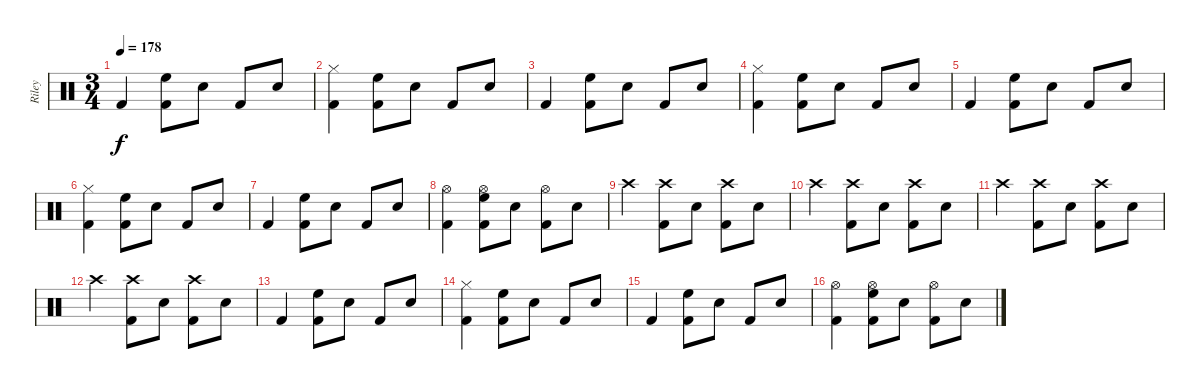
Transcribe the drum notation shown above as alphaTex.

\track ("Riley" "Riley") {instrument percussion}
\staff {score}
\articulation defaults
\ts (3 4)
\tempo 178
\clef neutral
\ks c "Kick (hit) 2".4{dy f}
("High Floor Tom (hit)" "Kick (hit) 2").8 "Snare (hit) 2".8 "Kick (hit) 2".8 "Snare (hit) 2".8 |
("Hi-Hat (closed)" "Kick (hit) 2").4 ("High Floor Tom (hit)" "Kick (hit) 2").8 "Snare (hit) 2".8 "Kick (hit) 2".8 "Snare (hit) 2".8 |
"Kick (hit) 2".4 ("High Floor Tom (hit)" "Kick (hit) 2").8 "Snare (hit) 2".8 "Kick (hit) 2".8 "Snare (hit) 2".8 |
("Hi-Hat (closed)" "Kick (hit) 2").4 ("High Floor Tom (hit)" "Kick (hit) 2").8 "Snare (hit) 2".8 "Kick (hit) 2".8 "Snare (hit) 2".8 |
"Kick (hit) 2".4 ("High Floor Tom (hit)" "Kick (hit) 2").8 "Snare (hit) 2".8 "Kick (hit) 2".8 "Snare (hit) 2".8 |
("Hi-Hat (closed)" "Kick (hit) 2").4 ("High Floor Tom (hit)" "Kick (hit) 2").8 "Snare (hit) 2".8 "Kick (hit) 2".8 "Snare (hit) 2".8 |
"Kick (hit) 2".4 ("High Floor Tom (hit)" "Kick (hit) 2").8 "Snare (hit) 2".8 "Kick (hit) 2".8 "Snare (hit) 2".8 |
("Hi-Hat (open)" "Kick (hit) 2").4 ("Hi-Hat (open)" "High Floor Tom (hit)" "Kick (hit) 2").8 "Snare (hit) 2".8 ("Hi-Hat (open)" "Kick (hit) 2").8 "Snare (hit) 2".8 |
"Crash high (hit)".4 ("Crash high (hit)" "Kick (hit) 2").8 "Snare (hit) 2".8 ("Crash high (hit)" "Kick (hit) 2").8 "Snare (hit) 2".8 |
"Crash high (hit)".4 ("Crash high (hit)" "Kick (hit) 2").8 "Snare (hit) 2".8 ("Crash high (hit)" "Kick (hit) 2").8 "Snare (hit) 2".8 |
"Crash high (hit)".4 ("Crash high (hit)" "Kick (hit) 2").8 "Snare (hit) 2".8 ("Crash high (hit)" "Kick (hit) 2").8 "Snare (hit) 2".8 |
"Crash high (hit)".4 ("Crash high (hit)" "Kick (hit) 2").8 "Snare (hit) 2".8 ("Crash high (hit)" "Kick (hit) 2").8 "Snare (hit) 2".8 |
"Kick (hit) 2".4 ("High Floor Tom (hit)" "Kick (hit) 2").8 "Snare (hit) 2".8 "Kick (hit) 2".8 "Snare (hit) 2".8 |
("Hi-Hat (closed)" "Kick (hit) 2").4 ("High Floor Tom (hit)" "Kick (hit) 2").8 "Snare (hit) 2".8 "Kick (hit) 2".8 "Snare (hit) 2".8 |
"Kick (hit) 2".4 ("High Floor Tom (hit)" "Kick (hit) 2").8 "Snare (hit) 2".8 "Kick (hit) 2".8 "Snare (hit) 2".8 |
("Hi-Hat (open)" "Kick (hit) 2").4 ("Hi-Hat (open)" "High Floor Tom (hit)" "Kick (hit) 2").8 "Snare (hit) 2".8 ("Hi-Hat (open)" "Kick (hit) 2").8 "Snare (hit) 2".8
